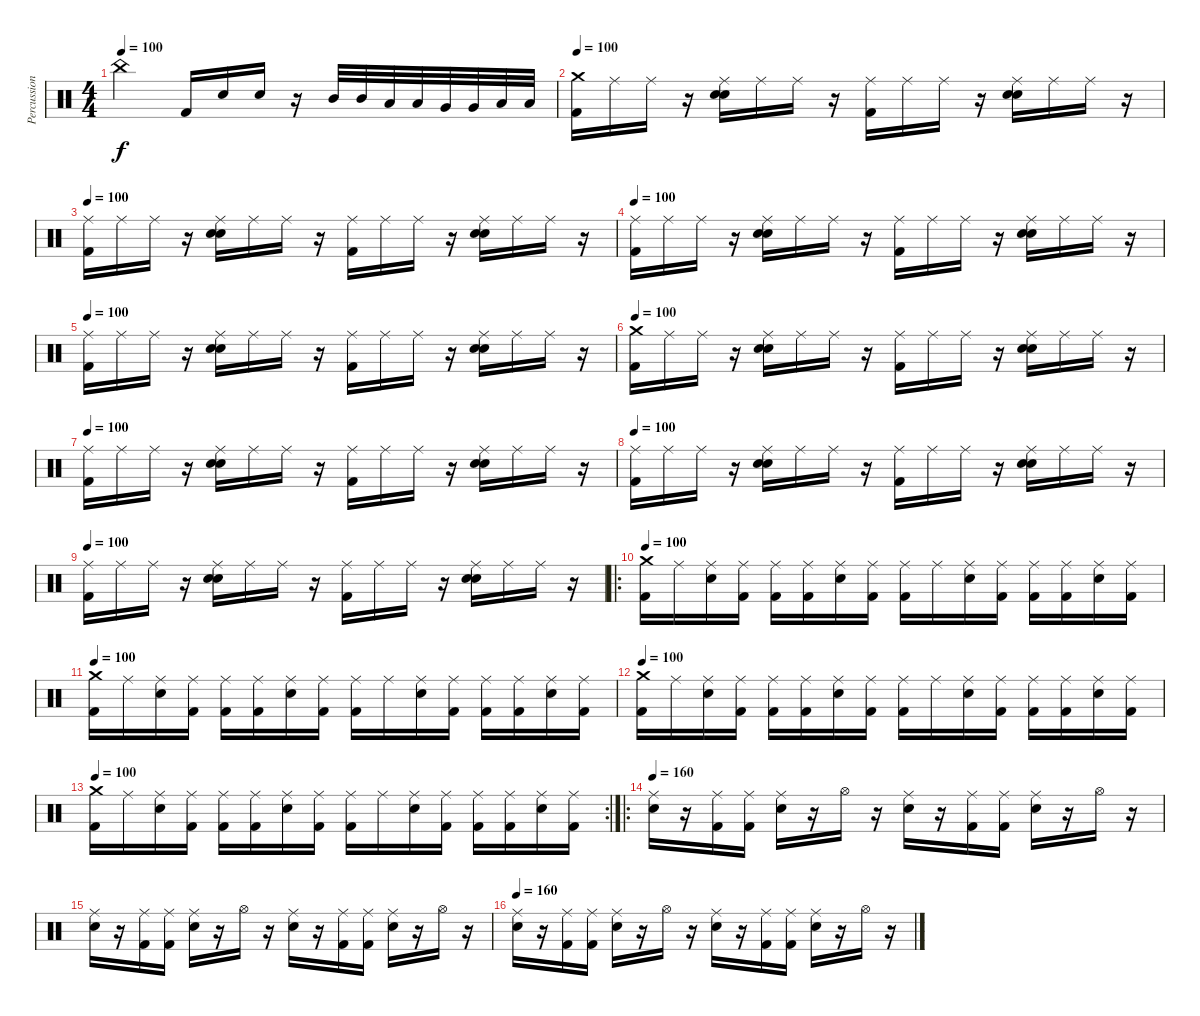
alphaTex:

\track ("Percussions" "Percussion") {instrument percussion}
\staff {score}
\articulation defaults
\ts (4 4)
\tempo 100
\clef neutral
\ks c "China (hit)".2{dy f} "Kick (hit) 2".16 "Electric Snare (hit)".16 "Snare (hit) 2".16
r.16 "Mid Tom (hit)".32 "Mid Tom (hit)".32 "Low Tom (hit)".32 "Low Tom (hit)".32 "Very Low Tom (hit)".32 "Very Low Tom (hit)".32 "Low Floor Tom (hit)".32 "Low Floor Tom (hit)".32 |
\tempo 100
("Crash medium (hit)" "Kick (hit) 2").16 "Ride (middle)".16 "Ride (middle)".16 r.16 ("Ride (middle)" "Electric Snare (hit)" "Electric Snare (hit)").16 "Ride (middle)".16 "Ride (middle)".16 r.16 ("Ride (middle)" "Kick (hit) 2").16 "Ride (middle)".16 "Ride (middle)".16 r.16 ("Ride (middle)" "Electric Snare (hit)" "Electric Snare (hit)").16 "Ride (middle)".16 "Ride (middle)".16 r.16 |
\tempo 100
("Ride (middle)" "Kick (hit) 2").16 "Ride (middle)".16 "Ride (middle)".16 r.16 ("Ride (middle)" "Electric Snare (hit)" "Electric Snare (hit)").16 "Ride (middle)".16 "Ride (middle)".16 r.16 ("Ride (middle)" "Kick (hit) 2").16 "Ride (middle)".16 "Ride (middle)".16 r.16 ("Ride (middle)" "Electric Snare (hit)" "Electric Snare (hit)").16 "Ride (middle)".16 "Ride (middle)".16 r.16 |
\tempo 100
("Ride (middle)" "Kick (hit) 2").16 "Ride (middle)".16 "Ride (middle)".16 r.16 ("Ride (middle)" "Electric Snare (hit)" "Electric Snare (hit)").16 "Ride (middle)".16 "Ride (middle)".16 r.16 ("Ride (middle)" "Kick (hit) 2").16 "Ride (middle)".16 "Ride (middle)".16 r.16 ("Ride (middle)" "Electric Snare (hit)" "Electric Snare (hit)").16 "Ride (middle)".16 "Ride (middle)".16 r.16 |
\tempo 100
("Ride (middle)" "Kick (hit) 2").16 "Ride (middle)".16 "Ride (middle)".16 r.16 ("Ride (middle)" "Electric Snare (hit)" "Electric Snare (hit)").16 "Ride (middle)".16 "Ride (middle)".16 r.16 ("Ride (middle)" "Kick (hit) 2").16 "Ride (middle)".16 "Ride (middle)".16 r.16 ("Ride (middle)" "Electric Snare (hit)" "Electric Snare (hit)").16 "Ride (middle)".16 "Ride (middle)".16 r.16 |
\tempo 100
("Crash medium (hit)" "Kick (hit) 2").16 "Ride (middle)".16 "Ride (middle)".16 r.16 ("Ride (middle)" "Electric Snare (hit)" "Electric Snare (hit)").16 "Ride (middle)".16 "Ride (middle)".16 r.16 ("Ride (middle)" "Kick (hit) 2").16 "Ride (middle)".16 "Ride (middle)".16 r.16 ("Ride (middle)" "Electric Snare (hit)" "Electric Snare (hit)").16 "Ride (middle)".16 "Ride (middle)".16 r.16 |
\tempo 100
("Ride (middle)" "Kick (hit) 2").16 "Ride (middle)".16 "Ride (middle)".16 r.16 ("Ride (middle)" "Electric Snare (hit)" "Electric Snare (hit)").16 "Ride (middle)".16 "Ride (middle)".16 r.16 ("Ride (middle)" "Kick (hit) 2").16 "Ride (middle)".16 "Ride (middle)".16 r.16 ("Ride (middle)" "Electric Snare (hit)" "Electric Snare (hit)").16 "Ride (middle)".16 "Ride (middle)".16 r.16 |
\tempo 100
("Ride (middle)" "Kick (hit) 2").16 "Ride (middle)".16 "Ride (middle)".16 r.16 ("Ride (middle)" "Electric Snare (hit)" "Electric Snare (hit)").16 "Ride (middle)".16 "Ride (middle)".16 r.16 ("Ride (middle)" "Kick (hit) 2").16 "Ride (middle)".16 "Ride (middle)".16 r.16 ("Ride (middle)" "Electric Snare (hit)" "Electric Snare (hit)").16 "Ride (middle)".16 "Ride (middle)".16 r.16 |
\tempo 100
("Ride (middle)" "Kick (hit) 2").16 "Ride (middle)".16 "Ride (middle)".16 r.16 ("Ride (middle)" "Electric Snare (hit)" "Electric Snare (hit)").16 "Ride (middle)".16 "Ride (middle)".16 r.16 ("Ride (middle)" "Kick (hit) 2").16 "Ride (middle)".16 "Ride (middle)".16 r.16 ("Ride (middle)" "Electric Snare (hit)" "Electric Snare (hit)").16 "Ride (middle)".16 "Ride (middle)".16 r.16 |
\ro
\tempo 100
("Crash medium (hit)" "Kick (hit) 2").16 "Ride (middle)".16 ("Ride (middle)" "Electric Snare (hit)").16 ("Ride (middle)" "Kick (hit) 2").16 ("Ride (middle)" "Kick (hit) 2").16 ("Ride (middle)" "Kick (hit) 2").16 ("Ride (middle)" "Electric Snare (hit)").16 ("Ride (middle)" "Kick (hit) 2").16 ("Ride (middle)" "Kick (hit) 2").16 "Ride (middle)".16 ("Ride (middle)" "Electric Snare (hit)").16 ("Ride (middle)" "Kick (hit) 2").16 ("Ride (middle)" "Kick (hit) 2").16 ("Ride (middle)" "Kick (hit) 2").16 ("Ride (middle)" "Electric Snare (hit)").16 ("Ride (middle)" "Kick (hit) 2").16 |
\tempo 100
("Crash medium (hit)" "Kick (hit) 2").16 "Ride (middle)".16 ("Ride (middle)" "Electric Snare (hit)").16 ("Ride (middle)" "Kick (hit) 2").16 ("Ride (middle)" "Kick (hit) 2").16 ("Ride (middle)" "Kick (hit) 2").16 ("Ride (middle)" "Electric Snare (hit)").16 ("Ride (middle)" "Kick (hit) 2").16 ("Ride (middle)" "Kick (hit) 2").16 "Ride (middle)".16 ("Ride (middle)" "Electric Snare (hit)").16 ("Ride (middle)" "Kick (hit) 2").16 ("Ride (middle)" "Kick (hit) 2").16 ("Ride (middle)" "Kick (hit) 2").16 ("Ride (middle)" "Electric Snare (hit)").16 ("Ride (middle)" "Kick (hit) 2").16 |
\tempo 100
("Crash medium (hit)" "Kick (hit) 2").16 "Ride (middle)".16 ("Ride (middle)" "Electric Snare (hit)").16 ("Ride (middle)" "Kick (hit) 2").16 ("Ride (middle)" "Kick (hit) 2").16 ("Ride (middle)" "Kick (hit) 2").16 ("Ride (middle)" "Electric Snare (hit)").16 ("Ride (middle)" "Kick (hit) 2").16 ("Ride (middle)" "Kick (hit) 2").16 "Ride (middle)".16 ("Ride (middle)" "Electric Snare (hit)").16 ("Ride (middle)" "Kick (hit) 2").16 ("Ride (middle)" "Kick (hit) 2").16 ("Ride (middle)" "Kick (hit) 2").16 ("Ride (middle)" "Electric Snare (hit)").16 ("Ride (middle)" "Kick (hit) 2").16 |
\rc 2
\tempo 100
("Crash medium (hit)" "Kick (hit) 2").16 "Ride (middle)".16 ("Ride (middle)" "Electric Snare (hit)").16 ("Ride (middle)" "Kick (hit) 2").16 ("Ride (middle)" "Kick (hit) 2").16 ("Ride (middle)" "Kick (hit) 2").16 ("Ride (middle)" "Electric Snare (hit)").16 ("Ride (middle)" "Kick (hit) 2").16 ("Ride (middle)" "Kick (hit) 2").16 "Ride (middle)".16 ("Ride (middle)" "Electric Snare (hit)").16 ("Ride (middle)" "Kick (hit) 2").16 ("Ride (middle)" "Kick (hit) 2").16 ("Ride (middle)" "Kick (hit) 2").16 ("Ride (middle)" "Electric Snare (hit)").16 ("Ride (middle)" "Kick (hit) 2").16 |
\ro
\tempo 160
("Electric Snare (hit)" "Ride (middle)").16 r.16 ("Kick (hit) 2" "Ride (middle)").16 ("Kick (hit) 2" "Ride (middle)").16 ("Electric Snare (hit)" "Ride (middle)").16 r.16 "Hi-Hat (open)".16 r.16 ("Electric Snare (hit)" "Ride (middle)").16 r.16 ("Kick (hit) 2" "Ride (middle)").16 ("Kick (hit) 2" "Ride (middle)").16 ("Electric Snare (hit)" "Ride (middle)").16 r.16 "Hi-Hat (open)".16 r.16 |
("Electric Snare (hit)" "Ride (middle)").16 r.16 ("Kick (hit) 2" "Ride (middle)").16 ("Kick (hit) 2" "Ride (middle)").16 ("Electric Snare (hit)" "Ride (middle)").16 r.16 "Hi-Hat (open)".16 r.16 ("Electric Snare (hit)" "Ride (middle)").16 r.16 ("Kick (hit) 2" "Ride (middle)").16 ("Kick (hit) 2" "Ride (middle)").16 ("Electric Snare (hit)" "Ride (middle)").16 r.16 "Hi-Hat (open)".16 r.16 |
\tempo 160
("Electric Snare (hit)" "Ride (middle)").16 r.16 ("Kick (hit) 2" "Ride (middle)").16 ("Kick (hit) 2" "Ride (middle)").16 ("Electric Snare (hit)" "Ride (middle)").16 r.16 "Hi-Hat (open)".16 r.16 ("Electric Snare (hit)" "Ride (middle)").16 r.16 ("Kick (hit) 2" "Ride (middle)").16 ("Kick (hit) 2" "Ride (middle)").16 ("Electric Snare (hit)" "Ride (middle)").16 r.16 "Hi-Hat (open)".16 r.16
